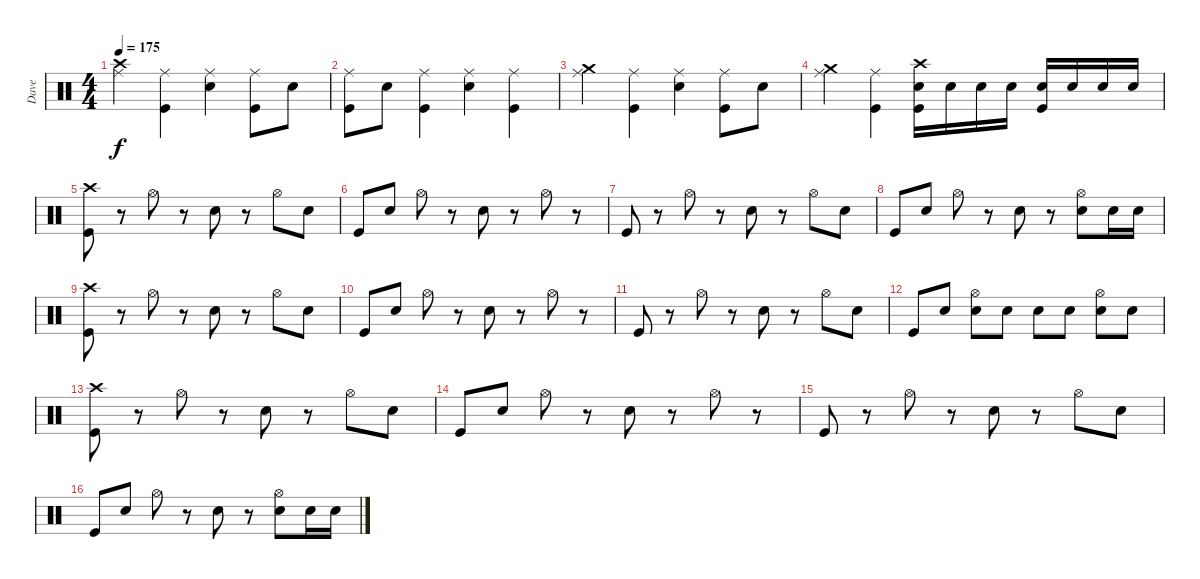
\track ("Dave" "Dave") {instrument percussion}
\staff {score}
\articulation defaults
\ts (4 4)
\tempo 175
\clef neutral
\ks c
("Crash high (hit)" "Ride (middle)").4{dy f} ("Ride (middle)" "Kick (hit)").4 ("Ride (middle)" "Snare (hit) 2").4 ("Ride (middle)" "Kick (hit)").8 "Snare (hit) 2".8 |
("Ride (middle)" "Kick (hit)").8 "Snare (hit) 2".8 ("Ride (middle)" "Kick (hit)").4 ("Ride (middle)" "Snare (hit) 2").4 ("Ride (middle)" "Kick (hit)").4 |
("Crash medium (hit)" "Ride (middle)").4 ("Ride (middle)" "Kick (hit)").4 ("Ride (middle)" "Snare (hit) 2").4 ("Ride (middle)" "Kick (hit)").8 "Snare (hit) 2".8 |
("Crash medium (hit)" "Ride (middle)").4 ("Ride (middle)" "Kick (hit)").4 ("Crash high (hit)" "Snare (hit) 2" "Kick (hit)").16 "Snare (hit) 2".16 "Snare (hit) 2".16 "Snare (hit) 2".16 ("Snare (hit) 2" "Kick (hit)").16 "Snare (hit) 2".16 "Snare (hit) 2".16 "Snare (hit) 2".16 |
("Crash high (hit)" "Kick (hit)").8 r.8 "Hi-Hat (open)".8 r.8 "Snare (hit) 2".8 r.8 "Hi-Hat (open)".8 "Snare (hit) 2".8 |
"Kick (hit)".8 "Snare (hit) 2".8 "Hi-Hat (open)".8 r.8 "Snare (hit) 2".8 r.8 "Hi-Hat (open)".8 r.8 |
"Kick (hit)".8 r.8 "Hi-Hat (open)".8 r.8 "Snare (hit) 2".8 r.8 "Hi-Hat (open)".8 "Snare (hit) 2".8 |
"Kick (hit)".8 "Snare (hit) 2".8 "Hi-Hat (open)".8 r.8 "Snare (hit) 2".8 r.8 ("Hi-Hat (open)" "Snare (hit) 2").8 "Snare (hit) 2".16 "Snare (hit) 2".16 |
("Crash high (hit)" "Kick (hit)").8 r.8 "Hi-Hat (open)".8 r.8 "Snare (hit) 2".8 r.8 "Hi-Hat (open)".8 "Snare (hit) 2".8 |
"Kick (hit)".8 "Snare (hit) 2".8 "Hi-Hat (open)".8 r.8 "Snare (hit) 2".8 r.8 "Hi-Hat (open)".8 r.8 |
"Kick (hit)".8 r.8 "Hi-Hat (open)".8 r.8 "Snare (hit) 2".8 r.8 "Hi-Hat (open)".8 "Snare (hit) 2".8 |
"Kick (hit)".8 "Snare (hit) 2".8 ("Hi-Hat (open)" "Snare (hit) 2").8 "Snare (hit) 2".8 "Snare (hit) 2".8 "Snare (hit) 2".8 ("Hi-Hat (open)" "Snare (hit) 2").8 "Snare (hit) 2".8 |
("Crash high (hit)" "Kick (hit)").8 r.8 "Hi-Hat (open)".8 r.8 "Snare (hit) 2".8 r.8 "Hi-Hat (open)".8 "Snare (hit) 2".8 |
"Kick (hit)".8 "Snare (hit) 2".8 "Hi-Hat (open)".8 r.8 "Snare (hit) 2".8 r.8 "Hi-Hat (open)".8 r.8 |
"Kick (hit)".8 r.8 "Hi-Hat (open)".8 r.8 "Snare (hit) 2".8 r.8 "Hi-Hat (open)".8 "Snare (hit) 2".8 |
"Kick (hit)".8 "Snare (hit) 2".8 "Hi-Hat (open)".8 r.8 "Snare (hit) 2".8 r.8 ("Hi-Hat (open)" "Snare (hit) 2").8 "Snare (hit) 2".16 "Snare (hit) 2".16
